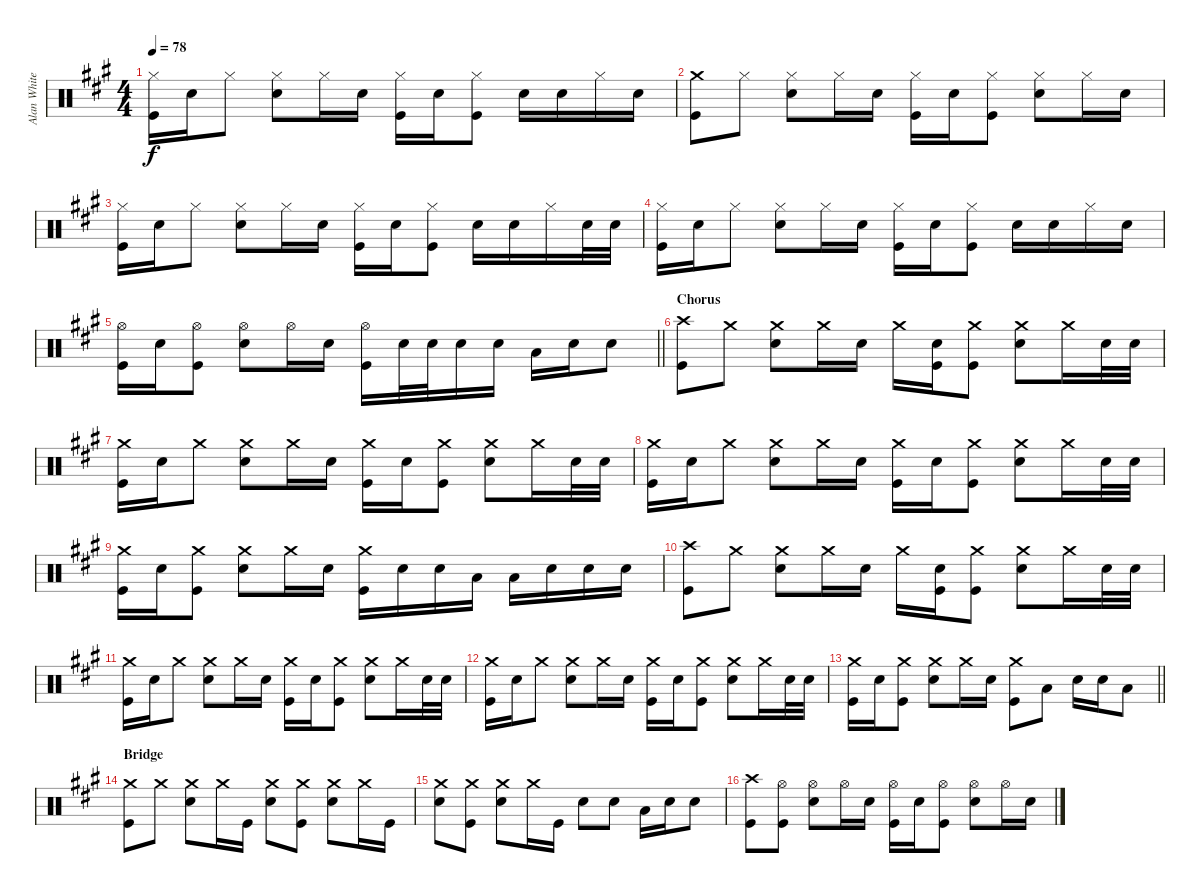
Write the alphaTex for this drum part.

\track ("Alan White (Drums)" "Alan White") {instrument percussion}
\staff {score}
\articulation defaults
\ts (4 4)
\tempo 78
\clef neutral
\ks a
("Hi-Hat (closed)" "Kick (hit)").16{dy f} "Snare (hit) 2".16 "Hi-Hat (closed)".8 ("Hi-Hat (closed)" "Snare (hit) 2").8 "Hi-Hat (closed)".16 "Snare (hit) 2".16 ("Hi-Hat (closed)" "Kick (hit)").16 "Snare (hit) 2".16 ("Hi-Hat (closed)" "Kick (hit)").8 "Snare (hit) 2".16 "Snare (hit) 2".16 "Hi-Hat (closed)".16 "Snare (hit) 2".16 |
("Crash medium (hit)" "Kick (hit)").8 "Hi-Hat (closed)".8 ("Hi-Hat (closed)" "Snare (hit) 2").8 "Hi-Hat (closed)".16 "Snare (hit) 2".16 ("Hi-Hat (closed)" "Kick (hit)").16 "Snare (hit) 2".16 ("Hi-Hat (closed)" "Kick (hit)").8 ("Hi-Hat (closed)" "Snare (hit) 2").8 "Hi-Hat (closed)".16 "Snare (hit) 2".16 |
("Hi-Hat (closed)" "Kick (hit)").16 "Snare (hit) 2".16 "Hi-Hat (closed)".8 ("Hi-Hat (closed)" "Snare (hit) 2").8 "Hi-Hat (closed)".16 "Snare (hit) 2".16 ("Hi-Hat (closed)" "Kick (hit)").16 "Snare (hit) 2".16 ("Hi-Hat (closed)" "Kick (hit)").8 "Snare (hit) 2".16 "Snare (hit) 2".16 "Hi-Hat (closed)".16 "Snare (hit) 2".32 "Snare (hit) 2".32 |
("Hi-Hat (closed)" "Kick (hit)").16 "Snare (hit) 2".16 "Hi-Hat (closed)".8 ("Hi-Hat (closed)" "Snare (hit) 2").8 "Hi-Hat (closed)".16 "Snare (hit) 2".16 ("Hi-Hat (closed)" "Kick (hit)").16 "Snare (hit) 2".16 ("Hi-Hat (closed)" "Kick (hit)").8 "Snare (hit) 2".16 "Snare (hit) 2".16 "Hi-Hat (closed)".16 "Snare (hit) 2".16 |
\barLineRight lightlight
("Hi-Hat (open)" "Kick (hit)").16 "Snare (hit) 2".16 ("Hi-Hat (open)" "Kick (hit)").8 ("Hi-Hat (open)" "Snare (hit) 2").8 "Hi-Hat (open)".16 "Snare (hit) 2".16 ("Hi-Hat (open)" "Kick (hit)").16 "Snare (hit) 2".32 "Snare (hit) 2".32 "Snare (hit) 2".16 "Snare (hit) 2".16 "Low Tom (hit)".16 "Snare (hit) 2".16 "Snare (hit) 2".8 |
\section ("" "Chorus")
("Crash high (hit)" "Kick (hit)").8 "Crash medium (hit)".8 ("Crash medium (hit)" "Snare (hit) 2").8 "Crash medium (hit)".16 "Snare (hit) 2".16 "Crash medium (hit)".16 ("Snare (hit) 2" "Kick (hit)").16 ("Crash medium (hit)" "Kick (hit)").8 ("Crash medium (hit)" "Snare (hit) 2").8 "Crash medium (hit)".16 "Snare (hit) 2".32 "Snare (hit) 2".32 |
("Crash medium (hit)" "Kick (hit)").16 "Snare (hit) 2".16 "Crash medium (hit)".8 ("Crash medium (hit)" "Snare (hit) 2").8 "Crash medium (hit)".16 "Snare (hit) 2".16 ("Crash medium (hit)" "Kick (hit)").16 "Snare (hit) 2".16 ("Crash medium (hit)" "Kick (hit)").8 ("Crash medium (hit)" "Snare (hit) 2").8 "Crash medium (hit)".16 "Snare (hit) 2".32 "Snare (hit) 2".32 |
("Crash medium (hit)" "Kick (hit)").16 "Snare (hit) 2".16 "Crash medium (hit)".8 ("Crash medium (hit)" "Snare (hit) 2").8 "Crash medium (hit)".16 "Snare (hit) 2".16 ("Crash medium (hit)" "Kick (hit)").16 "Snare (hit) 2".16 ("Crash medium (hit)" "Kick (hit)").8 ("Crash medium (hit)" "Snare (hit) 2").8 "Crash medium (hit)".16 "Snare (hit) 2".32 "Snare (hit) 2".32 |
("Crash medium (hit)" "Kick (hit)").16 "Snare (hit) 2".16 ("Crash medium (hit)" "Kick (hit)").8 ("Crash medium (hit)" "Snare (hit) 2").8 "Crash medium (hit)".16 "Snare (hit) 2".16 ("Crash medium (hit)" "Kick (hit)").16 "Snare (hit) 2".16 "Snare (hit) 2".16 "Low Tom (hit)".16 "Low Tom (hit)".16 "Snare (hit) 2".16 "Snare (hit) 2".16 "Snare (hit) 2".16 |
("Crash high (hit)" "Kick (hit)").8 "Crash medium (hit)".8 ("Crash medium (hit)" "Snare (hit) 2").8 "Crash medium (hit)".16 "Snare (hit) 2".16 "Crash medium (hit)".16 ("Snare (hit) 2" "Kick (hit)").16 ("Crash medium (hit)" "Kick (hit)").8 ("Crash medium (hit)" "Snare (hit) 2").8 "Crash medium (hit)".16 "Snare (hit) 2".32 "Snare (hit) 2".32 |
("Crash medium (hit)" "Kick (hit)").16 "Snare (hit) 2".16 "Crash medium (hit)".8 ("Crash medium (hit)" "Snare (hit) 2").8 "Crash medium (hit)".16 "Snare (hit) 2".16 ("Crash medium (hit)" "Kick (hit)").16 "Snare (hit) 2".16 ("Crash medium (hit)" "Kick (hit)").8 ("Crash medium (hit)" "Snare (hit) 2").8 "Crash medium (hit)".16 "Snare (hit) 2".32 "Snare (hit) 2".32 |
("Crash medium (hit)" "Kick (hit)").16 "Snare (hit) 2".16 "Crash medium (hit)".8 ("Crash medium (hit)" "Snare (hit) 2").8 "Crash medium (hit)".16 "Snare (hit) 2".16 ("Crash medium (hit)" "Kick (hit)").16 "Snare (hit) 2".16 ("Crash medium (hit)" "Kick (hit)").8 ("Crash medium (hit)" "Snare (hit) 2").8 "Crash medium (hit)".16 "Snare (hit) 2".32 "Snare (hit) 2".32 |
\barLineRight lightlight
("Crash medium (hit)" "Kick (hit)").16 "Snare (hit) 2".16 ("Crash medium (hit)" "Kick (hit)").8 ("Crash medium (hit)" "Snare (hit) 2").8 "Crash medium (hit)".16 "Snare (hit) 2".16 ("Crash medium (hit)" "Kick (hit)").8 "Low Tom (hit)".8 "Snare (hit) 2".16 "Snare (hit) 2".16 "Low Tom (hit)".8 |
\section ("" "Bridge")
("Crash medium (hit)" "Kick (hit)").8 "Crash medium (hit)".8 ("Crash medium (hit)" "Snare (hit) 2").8 "Crash medium (hit)".16 "Kick (hit)".16 ("Crash medium (hit)" "Snare (hit) 2").8 ("Crash medium (hit)" "Kick (hit)").8 ("Crash medium (hit)" "Snare (hit) 2").8 "Crash medium (hit)".16 "Kick (hit)".16 |
("Crash medium (hit)" "Snare (hit) 2").8 ("Crash medium (hit)" "Kick (hit)").8 ("Crash medium (hit)" "Snare (hit) 2").8 "Crash medium (hit)".16 "Kick (hit)".16 "Snare (hit) 2".8 "Snare (hit) 2".8 "Low Tom (hit)".16 "Snare (hit) 2".16 "Snare (hit) 2".8 |
("Crash high (hit)" "Kick (hit)").8 ("Hi-Hat (open)" "Kick (hit)").8 ("Hi-Hat (open)" "Snare (hit) 2").8 "Hi-Hat (open)".16 "Snare (hit) 2".16 ("Hi-Hat (open)" "Kick (hit)").16 "Snare (hit) 2".16 ("Hi-Hat (open)" "Kick (hit)").8 ("Hi-Hat (open)" "Snare (hit) 2").8 "Hi-Hat (open)".16 "Snare (hit) 2".16
